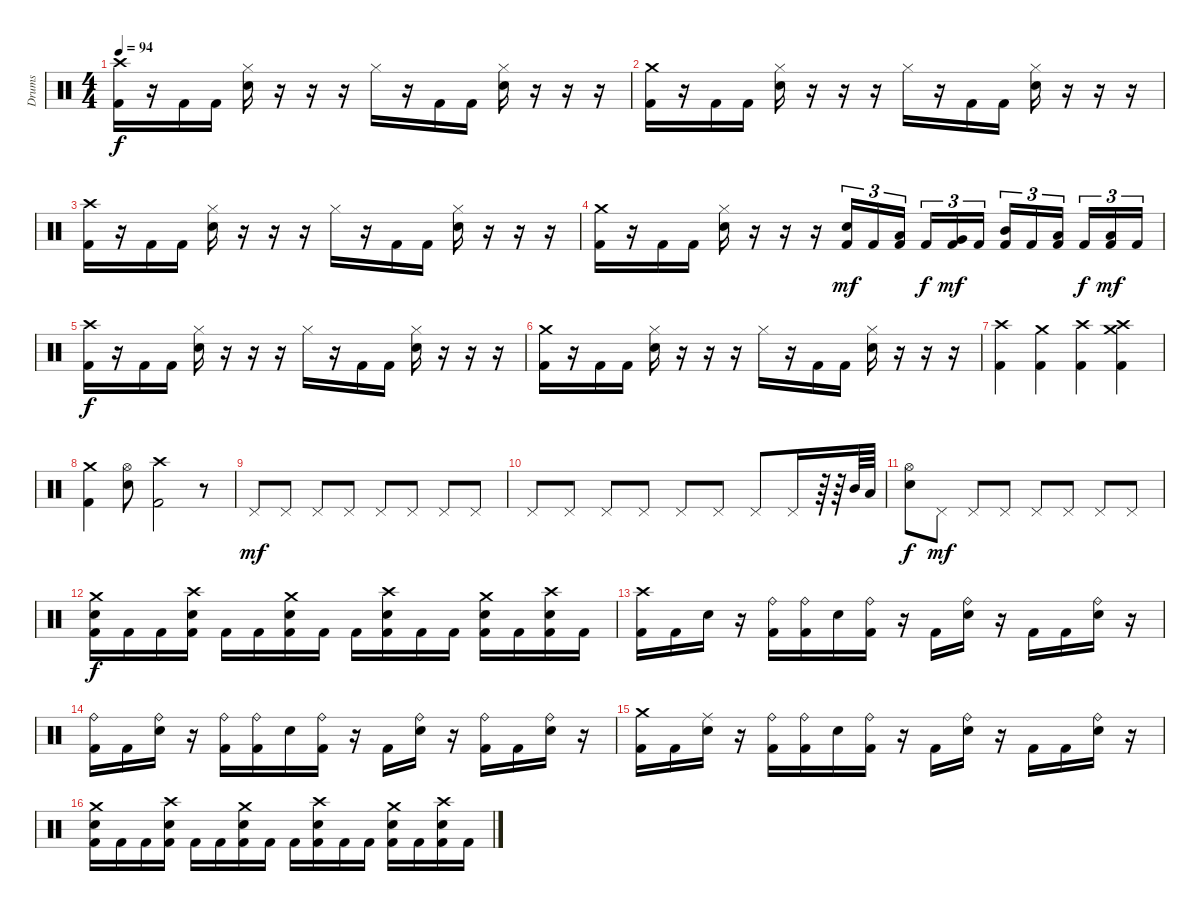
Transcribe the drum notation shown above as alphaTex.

\track ("Drums" "Drums") {instrument percussion}
\staff {score}
\articulation defaults
\ts (4 4)
\tempo 94
\clef neutral
\ks c
("Crash high (hit)" "Kick (hit) 2").16{dy f} r.16 "Kick (hit) 2".16 "Kick (hit) 2".16 ("Hi-Hat (closed)" "Electric Snare (hit)").16 r.16 r.16 r.16 "Hi-Hat (closed)".16 r.16 "Kick (hit) 2".16 "Kick (hit) 2".16 ("Hi-Hat (closed)" "Electric Snare (hit)").16 r.16 r.16 r.16 |
("Crash medium (hit)" "Kick (hit) 2").16 r.16 "Kick (hit) 2".16 "Kick (hit) 2".16 ("Hi-Hat (closed)" "Electric Snare (hit)").16 r.16 r.16 r.16 "Hi-Hat (closed)".16 r.16 "Kick (hit) 2".16 "Kick (hit) 2".16 ("Hi-Hat (closed)" "Electric Snare (hit)").16 r.16 r.16 r.16 |
("Crash high (hit)" "Kick (hit) 2").16 r.16 "Kick (hit) 2".16 "Kick (hit) 2".16 ("Hi-Hat (closed)" "Electric Snare (hit)").16 r.16 r.16 r.16 "Hi-Hat (closed)".16 r.16 "Kick (hit) 2".16 "Kick (hit) 2".16 ("Hi-Hat (closed)" "Electric Snare (hit)").16 r.16 r.16 r.16 |
("Crash medium (hit)" "Kick (hit) 2").16 r.16 "Kick (hit) 2".16 "Kick (hit) 2".16 ("Hi-Hat (closed)" "Electric Snare (hit)").16 r.16 r.16 r.16 ("Electric Snare (hit)" "Kick (hit) 2").16{tu (3 2) dy mf} "Kick (hit) 2".16{tu (3 2)} ("Low Tom (hit)" "Kick (hit) 2").16{tu (3 2) beam splitsecondary} "Kick (hit) 2".16{tu (3 2) dy f} ("Very Low Tom (hit)" "Kick (hit) 2").16{tu (3 2) dy mf} "Kick (hit) 2".16{tu (3 2)} ("Mid Tom (hit)" "Kick (hit) 2").16{tu (3 2)} "Kick (hit) 2".16{tu (3 2)} ("Low Tom (hit)" "Kick (hit) 2").16{tu (3 2) beam splitsecondary} "Kick (hit) 2".16{tu (3 2) dy f} ("Low Floor Tom (hit)" "Kick (hit) 2").16{tu (3 2) dy mf} "Kick (hit) 2".16{tu (3 2)} |
("Crash high (hit)" "Kick (hit) 2").16{dy f} r.16 "Kick (hit) 2".16 "Kick (hit) 2".16 ("Hi-Hat (closed)" "Electric Snare (hit)").16 r.16 r.16 r.16 "Hi-Hat (closed)".16 r.16 "Kick (hit) 2".16 "Kick (hit) 2".16 ("Hi-Hat (closed)" "Electric Snare (hit)").16 r.16 r.16 r.16 |
("Crash medium (hit)" "Kick (hit) 2").16 r.16 "Kick (hit) 2".16 "Kick (hit) 2".16 ("Hi-Hat (closed)" "Electric Snare (hit)").16 r.16 r.16 r.16 "Hi-Hat (closed)".16 r.16 "Kick (hit) 2".16 "Kick (hit) 2".16 ("Hi-Hat (closed)" "Electric Snare (hit)").16 r.16 r.16 r.16 |
("Crash high (hit)" "Kick (hit) 2").4 ("Crash medium (hit)" "Kick (hit) 2").4 ("Crash high (hit)" "Kick (hit) 2").4 ("Crash high (hit)" "Crash medium (hit)" "Kick (hit) 2").4 |
("Crash medium (hit)" "Kick (hit) 2").4 ("Hi-Hat (open)" "Electric Snare (hit)").8 ("Crash high (hit)" "Kick (hit) 2").2 r.8 |
"Pedal Hi-Hat (hit)".8{dy mf} "Pedal Hi-Hat (hit)".8 "Pedal Hi-Hat (hit)".8 "Pedal Hi-Hat (hit)".8 "Pedal Hi-Hat (hit)".8 "Pedal Hi-Hat (hit)".8 "Pedal Hi-Hat (hit)".8 "Pedal Hi-Hat (hit)".8 |
"Pedal Hi-Hat (hit)".8 "Pedal Hi-Hat (hit)".8 "Pedal Hi-Hat (hit)".8 "Pedal Hi-Hat (hit)".8 "Pedal Hi-Hat (hit)".8 "Pedal Hi-Hat (hit)".8 "Pedal Hi-Hat (hit)".8 "Pedal Hi-Hat (hit)".16 r.64 r.64 "Mid Tom (hit)".64 "Low Tom (hit)".64 |
("Hi-Hat (open)" "Electric Snare (hit)").8{dy f} "Pedal Hi-Hat (hit)".8{dy mf} "Pedal Hi-Hat (hit)".8 "Pedal Hi-Hat (hit)".8 "Pedal Hi-Hat (hit)".8 "Pedal Hi-Hat (hit)".8 "Pedal Hi-Hat (hit)".8 "Pedal Hi-Hat (hit)".8 |
("Crash medium (hit)" "Electric Snare (hit)" "Kick (hit) 2").16{dy f} "Kick (hit) 2".16 "Kick (hit) 2".16 ("Crash high (hit)" "Electric Snare (hit)" "Kick (hit) 2").16 "Kick (hit) 2".16 "Kick (hit) 2".16 ("Crash medium (hit)" "Electric Snare (hit)" "Kick (hit) 2").16 "Kick (hit) 2".16 "Kick (hit) 2".16 ("Crash high (hit)" "Electric Snare (hit)" "Kick (hit) 2").16 "Kick (hit) 2".16 "Kick (hit) 2".16 ("Crash medium (hit)" "Electric Snare (hit)" "Kick (hit) 2").16 "Kick (hit) 2".16 ("Crash high (hit)" "Electric Snare (hit)" "Kick (hit) 2").16 "Kick (hit) 2".16 |
("Crash high (hit)" "Kick (hit) 2").16 "Kick (hit) 2".16 "Electric Snare (hit)".16 r.16 ("Ride (bell)" "Kick (hit) 2").16 ("Ride (bell)" "Kick (hit) 2").16 "Electric Snare (hit)".16 ("Ride (bell)" "Kick (hit) 2").16 r.16 "Kick (hit) 2".16 ("Ride (bell)" "Electric Snare (hit)").16 r.16 "Kick (hit) 2".16 "Kick (hit) 2".16 ("Ride (bell)" "Electric Snare (hit)").16 r.16 |
("Ride (bell)" "Kick (hit) 2").16 "Kick (hit) 2".16 ("Ride (bell)" "Electric Snare (hit)").16 r.16 ("Ride (bell)" "Kick (hit) 2").16 ("Ride (bell)" "Kick (hit) 2").16 "Electric Snare (hit)".16 ("Ride (bell)" "Kick (hit) 2").16 r.16 "Kick (hit) 2".16 ("Ride (bell)" "Electric Snare (hit)").16 r.16 ("Ride (bell)" "Kick (hit) 2").16 "Kick (hit) 2".16 ("Ride (bell)" "Electric Snare (hit)").16 r.16 |
("Crash medium (hit)" "Kick (hit) 2").16 "Kick (hit) 2".16 ("Ride (middle)" "Electric Snare (hit)").16 r.16 ("Ride (bell)" "Kick (hit) 2").16 ("Ride (bell)" "Kick (hit) 2").16 "Electric Snare (hit)".16 ("Ride (bell)" "Kick (hit) 2").16 r.16 "Kick (hit) 2".16 ("Ride (bell)" "Electric Snare (hit)").16 r.16 "Kick (hit) 2".16 "Kick (hit) 2".16 ("Ride (bell)" "Electric Snare (hit)").16 r.16 |
("Crash medium (hit)" "Electric Snare (hit)" "Kick (hit) 2").16 "Kick (hit) 2".16 "Kick (hit) 2".16 ("Crash high (hit)" "Electric Snare (hit)" "Kick (hit) 2").16 "Kick (hit) 2".16 "Kick (hit) 2".16 ("Crash medium (hit)" "Electric Snare (hit)" "Kick (hit) 2").16 "Kick (hit) 2".16 "Kick (hit) 2".16 ("Crash high (hit)" "Electric Snare (hit)" "Kick (hit) 2").16 "Kick (hit) 2".16 "Kick (hit) 2".16 ("Crash medium (hit)" "Electric Snare (hit)" "Kick (hit) 2").16 "Kick (hit) 2".16 ("Crash high (hit)" "Electric Snare (hit)" "Kick (hit) 2").16 "Kick (hit) 2".16
